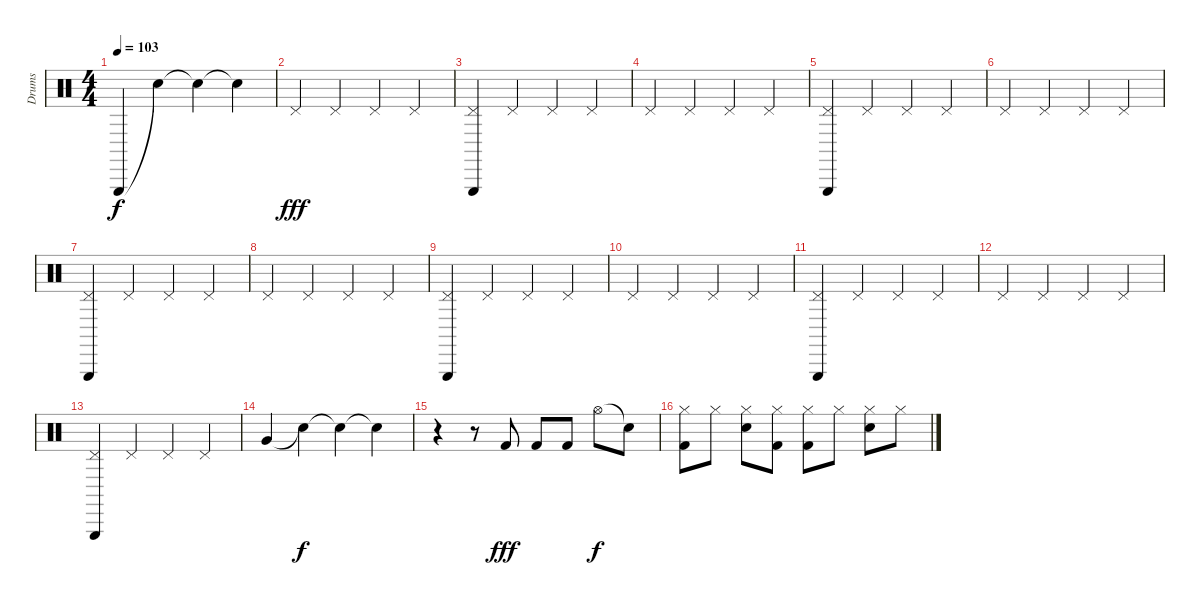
\track ("Drums" "Drums") {instrument percussion}
\staff {score}
\articulation defaults
\ts (4 4)
\tempo 103
\clef neutral
\ks c "Triangle (hit)".4{dy f} "Snare (hit)"{t}.4 "Snare (hit)"{t}.4 "Snare (hit)"{t}.4
|
"Pedal Hi-Hat (hit)".4{dy fff} "Pedal Hi-Hat (hit)".4 "Pedal Hi-Hat (hit)".4 "Pedal Hi-Hat (hit)".4 |
("Triangle (hit)" "Pedal Hi-Hat (hit)").4 "Pedal Hi-Hat (hit)".4 "Pedal Hi-Hat (hit)".4 "Pedal Hi-Hat (hit)".4 |
"Pedal Hi-Hat (hit)".4 "Pedal Hi-Hat (hit)".4 "Pedal Hi-Hat (hit)".4 "Pedal Hi-Hat (hit)".4 |
("Triangle (hit)" "Pedal Hi-Hat (hit)").4 "Pedal Hi-Hat (hit)".4 "Pedal Hi-Hat (hit)".4 "Pedal Hi-Hat (hit)".4 |
"Pedal Hi-Hat (hit)".4 "Pedal Hi-Hat (hit)".4 "Pedal Hi-Hat (hit)".4 "Pedal Hi-Hat (hit)".4 |
("Triangle (hit)" "Pedal Hi-Hat (hit)").4 "Pedal Hi-Hat (hit)".4 "Pedal Hi-Hat (hit)".4 "Pedal Hi-Hat (hit)".4 |
"Pedal Hi-Hat (hit)".4 "Pedal Hi-Hat (hit)".4 "Pedal Hi-Hat (hit)".4 "Pedal Hi-Hat (hit)".4 |
("Triangle (hit)" "Pedal Hi-Hat (hit)").4 "Pedal Hi-Hat (hit)".4 "Pedal Hi-Hat (hit)".4 "Pedal Hi-Hat (hit)".4 |
"Pedal Hi-Hat (hit)".4 "Pedal Hi-Hat (hit)".4 "Pedal Hi-Hat (hit)".4 "Pedal Hi-Hat (hit)".4 |
("Triangle (hit)" "Pedal Hi-Hat (hit)").4 "Pedal Hi-Hat (hit)".4 "Pedal Hi-Hat (hit)".4 "Pedal Hi-Hat (hit)".4 |
"Pedal Hi-Hat (hit)".4 "Pedal Hi-Hat (hit)".4 "Pedal Hi-Hat (hit)".4 "Pedal Hi-Hat (hit)".4 |
("Triangle (hit)" "Pedal Hi-Hat (hit)").4 "Pedal Hi-Hat (hit)".4 "Pedal Hi-Hat (hit)".4 "Pedal Hi-Hat (hit)".4 |
"Very Low Tom (hit)".4 "Snare (hit)"{t}.4{dy f} "Snare (hit)"{t}.4 "Snare (hit)"{t}.4 |
r.4 r.8 "Kick (hit) 2".8{dy fff} "Kick (hit) 2".8 "Kick (hit) 2".8 "Hi-Hat (open)".8{dy f} "Snare (hit)"{t}.8 |
("Hi-Hat (closed)" "Kick (hit) 2").8 "Hi-Hat (closed)".8 ("Hi-Hat (closed)" "Electric Snare (hit)").8 ("Hi-Hat (closed)" "Kick (hit) 2").8 ("Hi-Hat (closed)" "Kick (hit) 2").8 "Hi-Hat (closed)".8 ("Hi-Hat (closed)" "Electric Snare (hit)").8 "Hi-Hat (closed)".8
